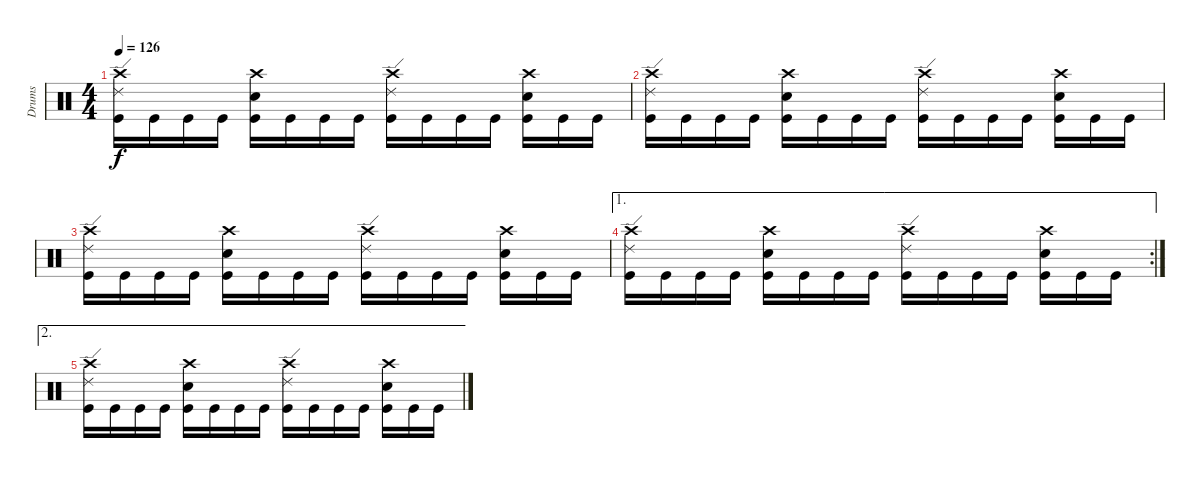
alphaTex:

\track ("Drums" "Drums") {instrument percussion}
\staff {score}
\articulation defaults
\ts (4 4)
\tempo 126
\clef neutral
\ks c
("Crash high (hit)" "Ride (edge) 2" "Kick (hit)").16{dy f} "Kick (hit)".16 "Kick (hit)".16 "Kick (hit)".16 ("Crash high (hit)" "Electric Snare (hit)" "Kick (hit)").16 "Kick (hit)".16 "Kick (hit)".16 "Kick (hit)".16 ("Crash high (hit)" "Ride (edge) 2" "Kick (hit)").16 "Kick (hit)".16 "Kick (hit)".16 "Kick (hit)".16 ("Crash high (hit)" "Electric Snare (hit)" "Kick (hit)").16 "Kick (hit)".16 "Kick (hit)".16 |
("Crash high (hit)" "Ride (edge) 2" "Kick (hit)").16 "Kick (hit)".16 "Kick (hit)".16 "Kick (hit)".16 ("Crash high (hit)" "Electric Snare (hit)" "Kick (hit)").16 "Kick (hit)".16 "Kick (hit)".16 "Kick (hit)".16 ("Crash high (hit)" "Ride (edge) 2" "Kick (hit)").16 "Kick (hit)".16 "Kick (hit)".16 "Kick (hit)".16 ("Crash high (hit)" "Electric Snare (hit)" "Kick (hit)").16 "Kick (hit)".16 "Kick (hit)".16 |
("Crash high (hit)" "Ride (edge) 2" "Kick (hit)").16 "Kick (hit)".16 "Kick (hit)".16 "Kick (hit)".16 ("Crash high (hit)" "Electric Snare (hit)" "Kick (hit)").16 "Kick (hit)".16 "Kick (hit)".16 "Kick (hit)".16 ("Crash high (hit)" "Ride (edge) 2" "Kick (hit)").16 "Kick (hit)".16 "Kick (hit)".16 "Kick (hit)".16 ("Crash high (hit)" "Electric Snare (hit)" "Kick (hit)").16 "Kick (hit)".16 "Kick (hit)".16 |
\ae 1
\rc 2
("Crash high (hit)" "Ride (edge) 2" "Kick (hit)").16 "Kick (hit)".16 "Kick (hit)".16 "Kick (hit)".16 ("Crash high (hit)" "Electric Snare (hit)" "Kick (hit)").16 "Kick (hit)".16 "Kick (hit)".16 "Kick (hit)".16 ("Crash high (hit)" "Ride (edge) 2" "Kick (hit)").16 "Kick (hit)".16 "Kick (hit)".16 "Kick (hit)".16 ("Crash high (hit)" "Electric Snare (hit)" "Kick (hit)").16 "Kick (hit)".16 "Kick (hit)".16 |
\ae 2
("Crash high (hit)" "Ride (edge) 2" "Kick (hit)").16 "Kick (hit)".16 "Kick (hit)".16 "Kick (hit)".16 ("Crash high (hit)" "Electric Snare (hit)" "Kick (hit)").16 "Kick (hit)".16 "Kick (hit)".16 "Kick (hit)".16 ("Crash high (hit)" "Ride (edge) 2" "Kick (hit)").16 "Kick (hit)".16 "Kick (hit)".16 "Kick (hit)".16 ("Crash high (hit)" "Electric Snare (hit)" "Kick (hit)").16 "Kick (hit)".16 "Kick (hit)".16
